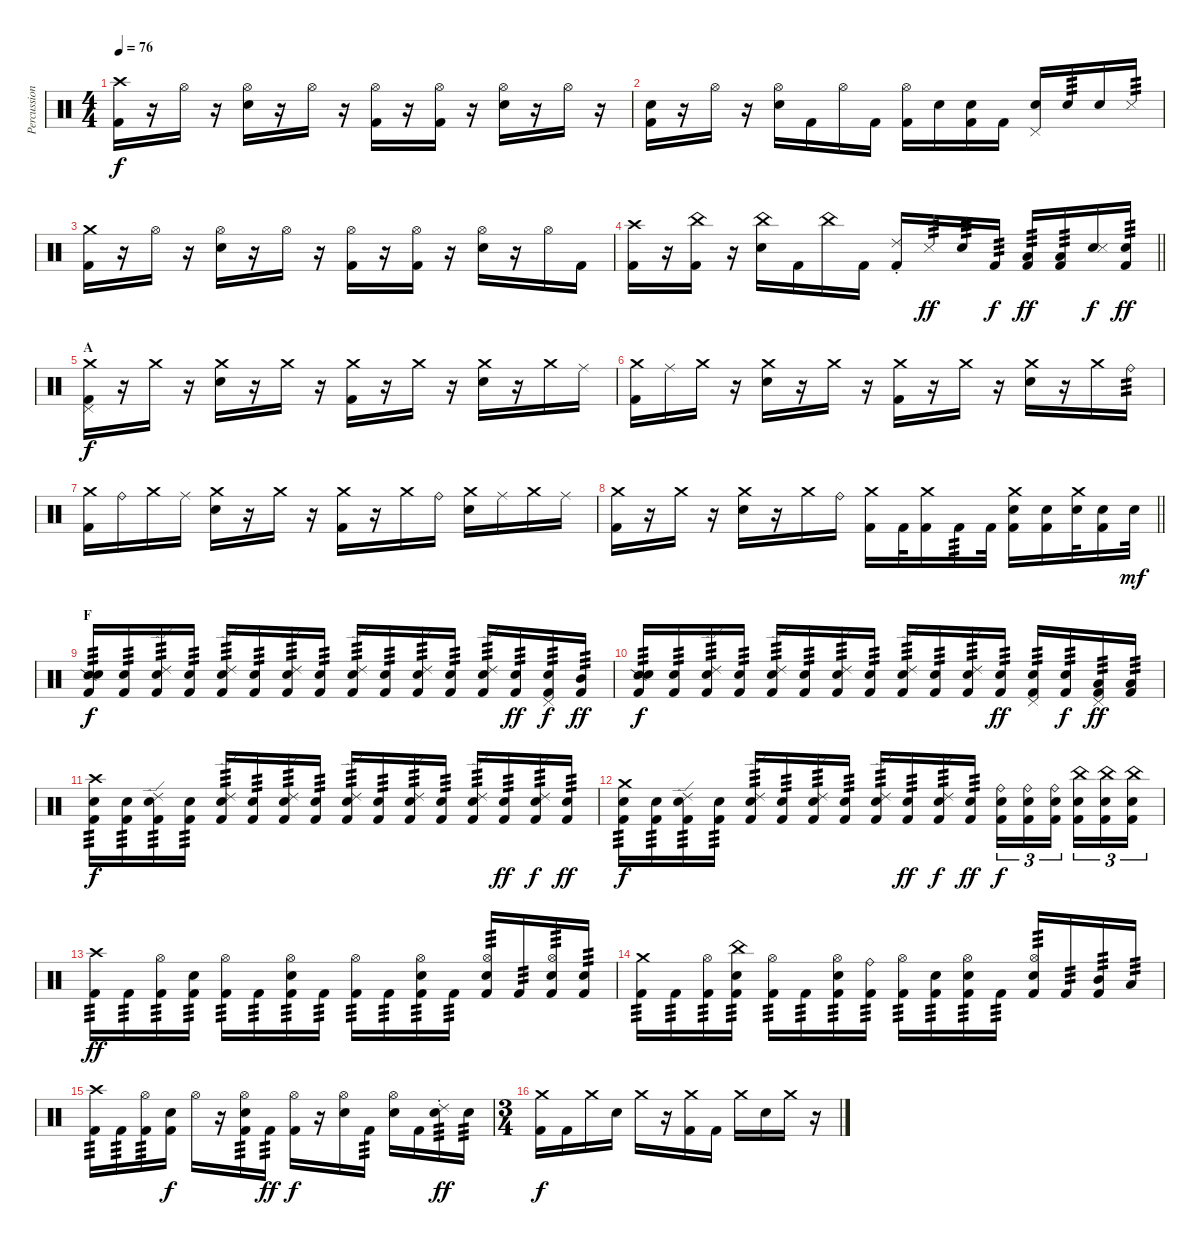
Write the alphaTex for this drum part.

\track ("Percussion" "Percussion") {instrument percussion}
\staff {score}
\articulation defaults
\ts (4 4)
\tempo 76
\clef neutral
\ks c
("Crash high (hit)" "Kick (hit) 2").16{dy f} r.16 "Hi-Hat (open)".16 r.16 ("Hi-Hat (open)" "Snare (hit) 2").16 r.16 "Hi-Hat (open)".16 r.16 ("Hi-Hat (open)" "Kick (hit) 2").16 r.16 ("Hi-Hat (open)" "Kick (hit) 2").16 r.16 ("Hi-Hat (open)" "Snare (hit) 2").16 r.16 "Hi-Hat (open)".16 r.16 |
("Snare (hit)" "Kick (hit) 2").16 r.16 "Hi-Hat (open)".16 r.16 ("Hi-Hat (open)" "Snare (hit) 2").16 "Kick (hit) 2".16 "Hi-Hat (open)".16 "Kick (hit) 2".16 ("Hi-Hat (open)" "Kick (hit) 2").16 "Snare (hit) 2".16 ("Snare (hit)" "Kick (hit) 2").16 "Kick (hit) 2".16 ("Pedal Hi-Hat (hit)" "Snare (hit) 2").16 "Snare (hit)".16{tp 3} "Snare (hit) 2".16 "Metronome (hit)".16{tp 3} |
("Crash medium (hit)" "Kick (hit) 2").16 r.16 "Hi-Hat (open)".16 r.16 ("Hi-Hat (open)" "Snare (hit) 2").16 r.16 "Hi-Hat (open)".16 r.16 ("Hi-Hat (open)" "Kick (hit) 2").16 r.16 ("Hi-Hat (open)" "Kick (hit) 2").16 r.16 ("Hi-Hat (open)" "Snare (hit) 2").16 r.16 "Hi-Hat (open)".16 "Kick (hit) 2".16 |
\barLineRight lightlight
("Crash high (hit)" "Kick (hit) 2").16 r.16 ("China (hit)" "Kick (hit) 2").16 r.16 ("China (hit)" "Snare (hit) 2").16 "Kick (hit) 2".16 "China (hit)".16 "Kick (hit) 2".16 ("Ride (choke) 2" "Kick (hit) 2").16 "Metronome (hit)".16{tp 3 dy ff} "Snare (hit) 2".16{tp 3} "Kick (hit) 2".16{tp 3 dy f} ("Low Tom (hit)" "Kick (hit) 2").16{tp 3 dy ff} ("Low Tom (hit)" "Kick (hit) 2").16{tp 3} ("Snare (hit) 2" "Metronome (hit)").16{bu 60 dy f} ("Snare (hit)" "Kick (hit) 2").16{tp 3 dy ff} |
\section ("" "A")
("Crash medium (hit)" "Pedal Hi-Hat (hit)" "Kick (hit) 2").16{dy f} r.16 "Crash medium (hit)".16 r.16 ("Crash medium (hit)" "Snare (hit) 2").16 r.16 "Crash medium (hit)".16 r.16 ("Crash medium (hit)" "Kick (hit) 2").16 r.16 "Crash medium (hit)".16 r.16 ("Crash medium (hit)" "Snare (hit) 2").16 r.16 "Crash medium (hit)".16 "Ride (middle)".16 |
("Crash medium (hit)" "Kick (hit) 2").16 "Ride (middle)".16 "Crash medium (hit)".16 r.16 ("Crash medium (hit)" "Snare (hit) 2").16 r.16 "Crash medium (hit)".16 r.16 ("Crash medium (hit)" "Kick (hit) 2").16 r.16 "Crash medium (hit)".16 r.16 ("Crash medium (hit)" "Snare (hit) 2").16 r.16 "Crash medium (hit)".16 "Ride (bell)".16{tp 3} |
("Crash medium (hit)" "Kick (hit) 2").16 "Ride (bell)".16 "Crash medium (hit)".16 "Ride (middle)".16 ("Crash medium (hit)" "Snare (hit) 2").16 r.16 "Crash medium (hit)".16 r.16 ("Crash medium (hit)" "Kick (hit) 2").16 r.16 "Crash medium (hit)".16 "Ride (bell)".16 ("Crash medium (hit)" "Snare (hit) 2").16 "Ride (middle)".16 "Crash medium (hit)".16 "Ride (middle)".16 |
\barLineRight lightlight
("Crash medium (hit)" "Kick (hit) 2").16 r.16 "Crash medium (hit)".16 r.16 ("Crash medium (hit)" "Snare (hit) 2").16 r.16 "Crash medium (hit)".16 "Ride (bell)".16 ("Crash medium (hit)" "Kick (hit) 2").16 "Kick (hit) 2".32 ("Crash medium (hit)" "Kick (hit) 2").16 "Kick (hit) 2".16{tp 3} "Kick (hit) 2".32 ("Crash medium (hit)" "Snare (hit) 2" "Kick (hit) 2").16 ("Snare (hit) 2" "Kick (hit) 2").16 ("Crash medium (hit)" "Snare (hit) 2").32 ("Snare (hit) 2" "Kick (hit) 2").16 "Snare (hit) 2".32{dy mf} |
\section ("" "F")
("Snare (side stick) 2" "Snare (hit) 2" "Kick (hit) 2").16{tp 3 dy f} ("Snare (hit) 2" "Kick (hit) 2").16{tp 3} ("Ride (edge) 2" "Snare (hit) 2" "Kick (hit) 2").16{tp 3} ("Snare (hit) 2" "Kick (hit) 2").16{tp 3} ("Ride (edge) 2" "Snare (hit) 2" "Kick (hit) 2").16{tp 3} ("Snare (hit) 2" "Kick (hit) 2").16{tp 3} ("Ride (edge) 2" "Snare (hit) 2" "Kick (hit) 2").16{tp 3} ("Snare (hit) 2" "Kick (hit) 2").16{tp 3} ("Ride (edge) 2" "Snare (hit) 2" "Kick (hit) 2").16{tp 3} ("Snare (hit) 2" "Kick (hit) 2").16{tp 3} ("Ride (edge) 2" "Snare (hit) 2" "Kick (hit) 2").16{tp 3} ("Snare (hit) 2" "Kick (hit) 2").16{tp 3} ("Ride (edge) 2" "Snare (hit) 2" "Kick (hit) 2").16{tp 3} ("Snare (hit) 2" "Kick (hit) 2").16{tp 3 dy ff} ("Pedal Hi-Hat (hit)" "Snare (hit) 2" "Kick (hit) 2").16{tp 3 dy f} ("Mid Tom (hit)" "Kick (hit) 2").16{tp 3 dy ff} |
("Snare (side stick) 2" "Snare (hit) 2" "Kick (hit) 2").16{tp 3 dy f} ("Snare (hit) 2" "Kick (hit) 2").16{tp 3} ("Ride (edge) 2" "Snare (hit) 2" "Kick (hit) 2").16{tp 3} ("Snare (hit) 2" "Kick (hit) 2").16{tp 3} ("Ride (edge) 2" "Snare (hit) 2" "Kick (hit) 2").16{tp 3} ("Snare (hit) 2" "Kick (hit) 2").16{tp 3} ("Ride (edge) 2" "Snare (hit) 2" "Kick (hit) 2").16{tp 3} ("Snare (hit) 2" "Kick (hit) 2").16{tp 3} ("Ride (edge) 2" "Snare (hit) 2" "Kick (hit) 2").16{tp 3} ("Snare (hit) 2" "Kick (hit) 2").16{tp 3} ("Ride (edge) 2" "Snare (hit) 2" "Kick (hit) 2").16{tp 3} ("Snare (hit) 2" "Kick (hit) 2").16{tp 3 dy ff} ("Pedal Hi-Hat (hit)" "Snare (hit) 2" "Kick (hit) 2").16{tp 3} ("Snare (hit) 2" "Kick (hit) 2").16{tp 3 dy f} ("Pedal Hi-Hat (hit)" "Low Floor Tom (hit)" "Kick (hit) 2").16{tp 3 dy ff} ("Low Tom (hit)" "Kick (hit) 2").16{tp 3} |
("Crash high (hit)" "Snare (hit) 2" "Kick (hit) 2").16{tp 3 dy f} ("Snare (hit) 2" "Kick (hit) 2").16{tp 3} ("Ride (edge) 2" "Snare (hit) 2" "Kick (hit) 2").16{tp 3} ("Snare (hit) 2" "Kick (hit) 2").16{tp 3} ("Ride (edge) 2" "Snare (hit) 2" "Kick (hit) 2").16{tp 3} ("Snare (hit) 2" "Kick (hit) 2").16{tp 3} ("Ride (edge) 2" "Snare (hit) 2" "Kick (hit) 2").16{tp 3} ("Snare (hit) 2" "Kick (hit) 2").16{tp 3} ("Ride (edge) 2" "Snare (hit) 2" "Kick (hit) 2").16{tp 3} ("Snare (hit) 2" "Kick (hit) 2").16{tp 3} ("Ride (edge) 2" "Snare (hit) 2" "Kick (hit) 2").16{tp 3} ("Snare (hit) 2" "Kick (hit) 2").16{tp 3} ("Ride (edge) 2" "Snare (hit) 2" "Kick (hit) 2").16{tp 3} ("Snare (hit) 2" "Kick (hit) 2").16{tp 3 dy ff} ("Ride (edge) 2" "Snare (hit) 2" "Kick (hit) 2").16{tp 3 dy f} ("Snare (hit) 2" "Kick (hit) 2").16{tp 3 dy ff} |
("Crash medium (hit)" "Snare (hit) 2" "Kick (hit) 2").16{tp 3 dy f} ("Snare (hit) 2" "Kick (hit) 2").16{tp 3} ("Ride (edge) 2" "Snare (hit) 2" "Kick (hit) 2").16{tp 3} ("Snare (hit) 2" "Kick (hit) 2").16{tp 3} ("Ride (edge) 2" "Snare (hit) 2" "Kick (hit) 2").16{tp 3} ("Snare (hit) 2" "Kick (hit) 2").16{tp 3} ("Ride (edge) 2" "Snare (hit) 2" "Kick (hit) 2").16{tp 3} ("Snare (hit) 2" "Kick (hit) 2").16{tp 3} ("Ride (edge) 2" "Snare (hit) 2" "Kick (hit) 2").16{tp 3} ("Snare (hit) 2" "Kick (hit) 2").16{tp 3 dy ff} ("Ride (edge) 2" "Snare (hit) 2" "Kick (hit) 2").16{tp 3 dy f} ("Snare (hit) 2" "Kick (hit) 2").16{tp 3 dy ff} ("Ride (bell)" "Snare (hit) 2" "Kick (hit) 2").16{tu (3 2) dy f} ("Ride (bell)" "Snare (hit) 2" "Kick (hit) 2").16{tu (3 2)} ("Ride (bell)" "Snare (hit) 2" "Kick (hit) 2").16{tu (3 2) beam splitsecondary} ("China (hit)" "Snare (hit) 2" "Kick (hit) 2").16{tu (3 2)} ("China (hit)" "Snare (hit) 2" "Kick (hit) 2").16{tu (3 2)} ("China (hit)" "Snare (hit) 2" "Kick (hit) 2").16{tu (3 2)} |
("Crash high (hit)" "Kick (hit) 2").16{tp 3 dy ff} "Kick (hit) 2".16{tp 3} ("Hi-Hat (open)" "Kick (hit) 2").16{tp 3} ("Snare (hit) 2" "Kick (hit) 2").16{tp 3} ("Hi-Hat (open)" "Kick (hit) 2").16{tp 3} "Kick (hit) 2".16{tp 3} ("Hi-Hat (open)" "Snare (hit) 2" "Kick (hit) 2").16{tp 3} "Kick (hit) 2".16{tp 3} ("Hi-Hat (open)" "Kick (hit) 2").16{tp 3} "Kick (hit) 2".16{tp 3} ("Hi-Hat (open)" "Snare (hit) 2" "Kick (hit) 2").16{tp 3} "Kick (hit) 2".16{tp 3} ("Hi-Hat (open)" "Snare (hit) 2" "Kick (hit) 2").16{tp 3} "Kick (hit) 2".16{tp 3} ("Hi-Hat (open)" "Snare (hit) 2" "Kick (hit) 2").16{tp 3} ("Snare (hit) 2" "Kick (hit) 2").16{tp 3} |
("Crash medium (hit)" "Kick (hit) 2").16{tp 3} "Kick (hit) 2".16{tp 3} ("Hi-Hat (open)" "Kick (hit) 2").16{tp 3} ("China (hit)" "Snare (hit) 2" "Kick (hit) 2").16{tp 3} ("Hi-Hat (open)" "Kick (hit) 2").16{tp 3} "Kick (hit) 2".16{tp 3} ("Hi-Hat (open)" "Snare (hit) 2" "Kick (hit) 2").16{tp 3} ("Ride (bell)" "Kick (hit) 2").16{tp 3} ("Hi-Hat (open)" "Kick (hit) 2").16{tp 3} ("Snare (hit) 2" "Kick (hit) 2").16{tp 3} ("Hi-Hat (open)" "Snare (hit) 2" "Kick (hit) 2").16{tp 3} "Kick (hit) 2".16{tp 3} ("Hi-Hat (open)" "Snare (hit) 2" "Kick (hit) 2").16{tp 3} "Kick (hit) 2".16{tp 3} ("Mid Tom (hit)" "Kick (hit) 2").16{tp 3} "Low Tom (hit)".16{tp 3} |
("Crash high (hit)" "Kick (hit) 2").16{tp 3} "Kick (hit) 2".16{tp 3} ("Hi-Hat (open)" "Kick (hit) 2").16{tp 3} ("Snare (hit) 2" "Kick (hit) 2").16{dy f} "Hi-Hat (open)".16 r.16 ("Hi-Hat (open)" "Snare (hit) 2" "Kick (hit) 2").16{tp 3} "Kick (hit) 2".16{tp 3 dy ff} ("Hi-Hat (open)" "Kick (hit) 2").16{dy f} r.16 ("Hi-Hat (open)" "Snare (hit) 2").16 "Kick (hit) 2".16{tp 3} ("Hi-Hat (open)" "Snare (hit) 2").16 "Kick (hit) 2".16 ("Ride (choke) 2" "Snare (hit) 2").16{tp 3 dy ff} "Snare (hit) 2".16{tp 3} |
\ts (3 4)
("Crash medium (hit)" "Kick (hit) 2").16{dy f} "Kick (hit) 2".16 "Crash medium (hit)".16 "Snare (hit) 2".16 "Crash medium (hit)".16 r.16 ("Crash medium (hit)" "Kick (hit) 2").16 "Kick (hit) 2".16 "Crash medium (hit)".16 "Snare (hit) 2".16 "Crash medium (hit)".16 r.16
